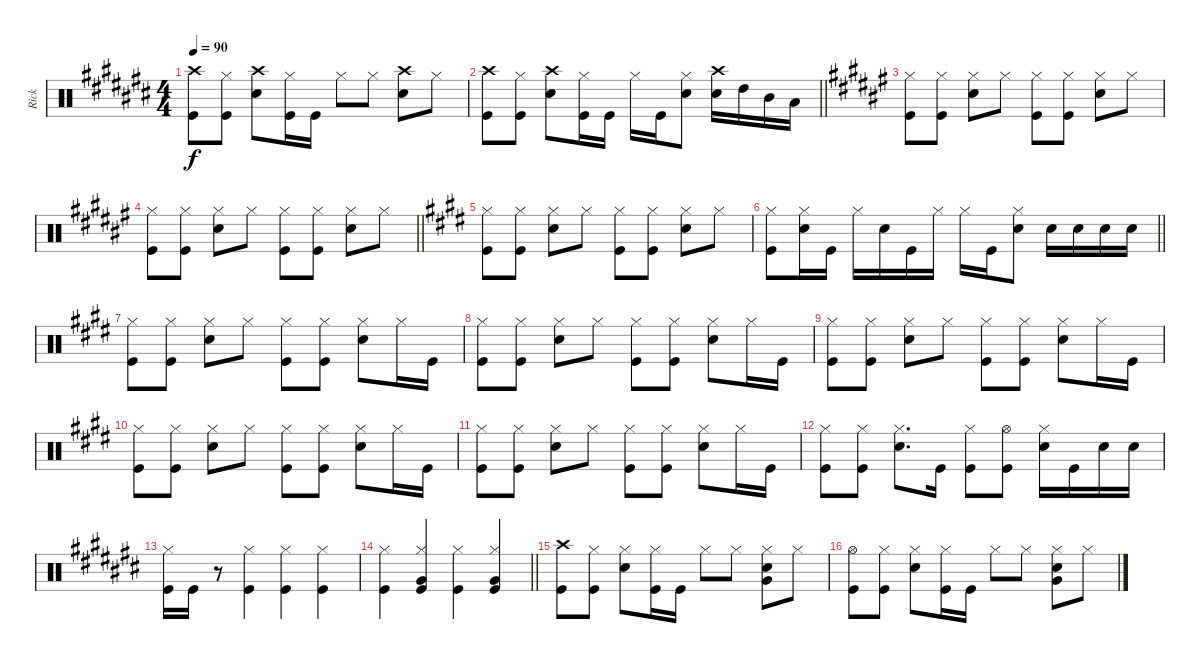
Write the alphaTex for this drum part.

\track ("Rick" "Rick") {instrument percussion}
\staff {score}
\articulation defaults
\ts (4 4)
\tempo 90
\clef neutral
\ks c#
("Crash high (hit)" "Kick (hit)").8{dy f} ("Hi-Hat (closed)" "Kick (hit)").8 ("Crash high (hit)" "Snare (hit) 2").8 ("Hi-Hat (closed)" "Kick (hit)").16 "Kick (hit)".16 "Hi-Hat (closed)".8 "Hi-Hat (closed)".8 ("Crash high (hit)" "Snare (hit) 2").8 "Hi-Hat (closed)".8 |
\barLineRight lightlight
("Crash high (hit)" "Kick (hit)").8 ("Hi-Hat (closed)" "Kick (hit)").8 ("Crash high (hit)" "Snare (hit) 2").8 ("Hi-Hat (closed)" "Kick (hit)").16 "Kick (hit)".16 "Hi-Hat (closed)".16 "Kick (hit)".16 ("Hi-Hat (closed)" "Snare (hit) 2").8 ("Crash high (hit)" "Snare (hit) 2").16 "High Tom (hit)".16 "Mid Tom (hit)".16 "Low Tom (hit)".16 |
\ks f#
("Hi-Hat (closed)" "Kick (hit)").8 ("Hi-Hat (closed)" "Kick (hit)").8 ("Hi-Hat (closed)" "Snare (hit) 2").8 "Hi-Hat (closed)".8 ("Hi-Hat (closed)" "Kick (hit)").8 ("Hi-Hat (closed)" "Kick (hit)").8 ("Hi-Hat (closed)" "Snare (hit) 2").8 "Hi-Hat (closed)".8 |
\barLineRight lightlight
("Hi-Hat (closed)" "Kick (hit)").8 ("Hi-Hat (closed)" "Kick (hit)").8 ("Hi-Hat (closed)" "Snare (hit) 2").8 "Hi-Hat (closed)".8 ("Hi-Hat (closed)" "Kick (hit)").8 ("Hi-Hat (closed)" "Kick (hit)").8 ("Hi-Hat (closed)" "Snare (hit) 2").8 "Hi-Hat (closed)".8 |
\ks e
("Hi-Hat (closed)" "Kick (hit)").8 ("Hi-Hat (closed)" "Kick (hit)").8 ("Hi-Hat (closed)" "Snare (hit) 2").8 "Hi-Hat (closed)".8 ("Hi-Hat (closed)" "Kick (hit)").8 ("Hi-Hat (closed)" "Kick (hit)").8 ("Hi-Hat (closed)" "Snare (hit) 2").8 "Hi-Hat (closed)".8 |
\barLineRight lightlight
("Hi-Hat (closed)" "Kick (hit)").8 ("Hi-Hat (closed)" "Snare (hit) 2").16 "Kick (hit)".16 "Hi-Hat (closed)".16 "Snare (hit) 2".16 "Kick (hit)".16 "Hi-Hat (closed)".16 "Hi-Hat (closed)".16 "Kick (hit)".16 ("Hi-Hat (closed)" "Snare (hit) 2").8 "Snare (hit) 2".16 "Snare (hit) 2".16 "Snare (hit) 2".16 "Snare (hit) 2".16 |
("Hi-Hat (closed)" "Kick (hit)").8 ("Hi-Hat (closed)" "Kick (hit)").8 ("Hi-Hat (closed)" "Snare (hit) 2").8 "Hi-Hat (closed)".8 ("Hi-Hat (closed)" "Kick (hit)").8 ("Hi-Hat (closed)" "Kick (hit)").8 ("Hi-Hat (closed)" "Snare (hit) 2").8 "Hi-Hat (closed)".16 "Kick (hit)".16 |
("Hi-Hat (closed)" "Kick (hit)").8 ("Hi-Hat (closed)" "Kick (hit)").8 ("Hi-Hat (closed)" "Snare (hit) 2").8 "Hi-Hat (closed)".8 ("Hi-Hat (closed)" "Kick (hit)").8 ("Hi-Hat (closed)" "Kick (hit)").8 ("Hi-Hat (closed)" "Snare (hit) 2").8 "Hi-Hat (closed)".16 "Kick (hit)".16 |
("Hi-Hat (closed)" "Kick (hit)").8 ("Hi-Hat (closed)" "Kick (hit)").8 ("Hi-Hat (closed)" "Snare (hit) 2").8 "Hi-Hat (closed)".8 ("Hi-Hat (closed)" "Kick (hit)").8 ("Hi-Hat (closed)" "Kick (hit)").8 ("Hi-Hat (closed)" "Snare (hit) 2").8 "Hi-Hat (closed)".16 "Kick (hit)".16 |
("Hi-Hat (closed)" "Kick (hit)").8 ("Hi-Hat (closed)" "Kick (hit)").8 ("Hi-Hat (closed)" "Snare (hit) 2").8 "Hi-Hat (closed)".8 ("Hi-Hat (closed)" "Kick (hit)").8 ("Hi-Hat (closed)" "Kick (hit)").8 ("Hi-Hat (closed)" "Snare (hit) 2").8 "Hi-Hat (closed)".16 "Kick (hit)".16 |
("Hi-Hat (closed)" "Kick (hit)").8 ("Hi-Hat (closed)" "Kick (hit)").8 ("Hi-Hat (closed)" "Snare (hit) 2").8 "Hi-Hat (closed)".8 ("Hi-Hat (closed)" "Kick (hit)").8 ("Hi-Hat (closed)" "Kick (hit)").8 ("Hi-Hat (closed)" "Snare (hit) 2").8 "Hi-Hat (closed)".16 "Kick (hit)".16 |
("Hi-Hat (closed)" "Kick (hit)").8 ("Hi-Hat (closed)" "Kick (hit)").8 ("Hi-Hat (closed)" "Snare (hit) 2").8{d} "Kick (hit)".16 ("Hi-Hat (closed)" "Kick (hit)").8 ("Hi-Hat (open)" "Kick (hit)").8 ("Hi-Hat (closed)" "Snare (hit) 2").16 "Kick (hit)".16 "Snare (hit) 2".16 "Snare (hit) 2".16 |
\ks c#
("Hi-Hat (closed)" "Kick (hit)").16 "Kick (hit)".16 r.8 ("Hi-Hat (closed)" "Kick (hit)").4 ("Hi-Hat (closed)" "Kick (hit)").4 ("Hi-Hat (closed)" "Kick (hit)").4 |
\barLineRight lightlight
("Hi-Hat (closed)" "Kick (hit)").4 ("Hi-Hat (closed)" "Very Low Tom (hit)" "Kick (hit)").4 ("Hi-Hat (closed)" "Kick (hit)").4 ("Hi-Hat (closed)" "Very Low Tom (hit)" "Kick (hit)").4 |
("Crash high (hit)" "Kick (hit)").8 ("Hi-Hat (closed)" "Kick (hit)").8 ("Hi-Hat (closed)" "Snare (hit) 2").8 ("Hi-Hat (closed)" "Kick (hit)").16 "Kick (hit)".16 "Hi-Hat (closed)".8 "Hi-Hat (closed)".8 ("Hi-Hat (closed)" "Snare (hit) 2" "Very Low Tom (hit)").8 "Hi-Hat (closed)".8 |
("Hi-Hat (open)" "Kick (hit)").8 ("Hi-Hat (closed)" "Kick (hit)").8 ("Hi-Hat (closed)" "Snare (hit) 2").8 ("Hi-Hat (closed)" "Kick (hit)").16 "Kick (hit)".16 "Hi-Hat (closed)".8 "Hi-Hat (closed)".8 ("Hi-Hat (closed)" "Snare (hit) 2" "Very Low Tom (hit)").8 "Hi-Hat (closed)".8
